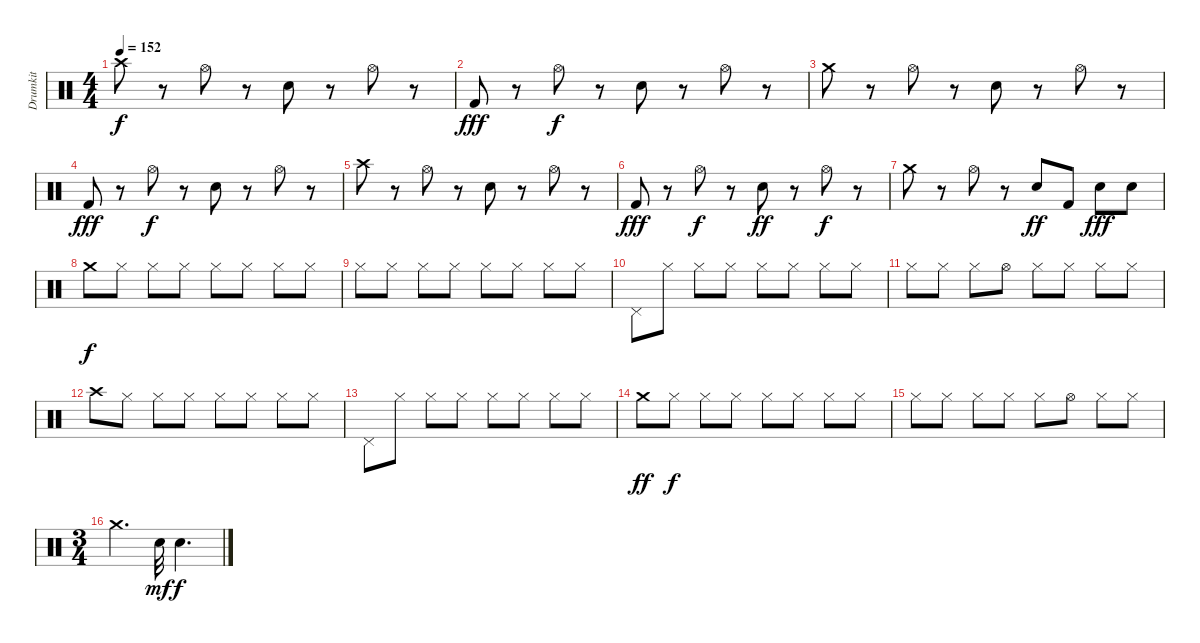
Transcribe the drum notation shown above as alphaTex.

\track ("Drumkit" "Drumkit") {instrument percussion}
\staff {score}
\articulation defaults
\ts (4 4)
\tempo 152
\clef neutral
\ks c "Crash high (hit)".8{dy f}
r.8 "Hi-Hat (open)".8 r.8 "Snare (hit) 2".8 r.8 "Hi-Hat (open)".8 r.8 |
"Kick (hit) 2".8{dy fff} r.8 "Hi-Hat (open)".8{dy f} r.8 "Snare (hit) 2".8 r.8 "Hi-Hat (open)".8 r.8 |
"Crash medium (hit)".8 r.8 "Hi-Hat (open)".8 r.8 "Snare (hit) 2".8 r.8 "Hi-Hat (open)".8 r.8 |
"Kick (hit) 2".8{dy fff} r.8 "Hi-Hat (open)".8{dy f} r.8 "Snare (hit) 2".8 r.8 "Hi-Hat (open)".8 r.8 |
"Crash high (hit)".8 r.8 "Hi-Hat (open)".8 r.8 "Snare (hit) 2".8 r.8 "Hi-Hat (open)".8 r.8 |
"Kick (hit) 2".8{dy fff} r.8 "Hi-Hat (open)".8{dy f} r.8 "Snare (hit) 2".8{dy ff} r.8 "Hi-Hat (open)".8{dy f} r.8 |
"Crash medium (hit)".8 r.8 "Hi-Hat (open)".8 r.8 "Snare (hit) 2".8{dy ff} "Kick (hit) 2".8 "Snare (hit) 2".8{dy fff} "Snare (hit) 2".8 |
"Crash medium (hit)".8{dy f} "Hi-Hat (closed)".8 "Hi-Hat (closed)".8 "Hi-Hat (closed)".8 "Hi-Hat (closed)".8 "Hi-Hat (closed)".8 "Hi-Hat (closed)".8 "Hi-Hat (closed)".8 |
"Hi-Hat (closed)".8 "Hi-Hat (closed)".8 "Hi-Hat (closed)".8 "Hi-Hat (closed)".8 "Hi-Hat (closed)".8 "Hi-Hat (closed)".8 "Hi-Hat (closed)".8 "Hi-Hat (closed)".8 |
"Pedal Hi-Hat (hit)".8 "Hi-Hat (closed)".8 "Hi-Hat (closed)".8 "Hi-Hat (closed)".8 "Hi-Hat (closed)".8 "Hi-Hat (closed)".8 "Hi-Hat (closed)".8 "Hi-Hat (closed)".8 |
"Hi-Hat (closed)".8 "Hi-Hat (closed)".8 "Hi-Hat (closed)".8 "Hi-Hat (open)".8 "Hi-Hat (closed)".8 "Hi-Hat (closed)".8 "Hi-Hat (closed)".8 "Hi-Hat (closed)".8 |
"Crash high (hit)".8 "Hi-Hat (closed)".8 "Hi-Hat (closed)".8 "Hi-Hat (closed)".8 "Hi-Hat (closed)".8 "Hi-Hat (closed)".8 "Hi-Hat (closed)".8 "Hi-Hat (closed)".8 |
"Pedal Hi-Hat (hit)".8 "Hi-Hat (closed)".8 "Hi-Hat (closed)".8 "Hi-Hat (closed)".8 "Hi-Hat (closed)".8 "Hi-Hat (closed)".8 "Hi-Hat (closed)".8 "Hi-Hat (closed)".8 |
"Crash medium (hit)".8{dy ff} "Hi-Hat (closed)".8{dy f} "Hi-Hat (closed)".8 "Hi-Hat (closed)".8 "Hi-Hat (closed)".8 "Hi-Hat (closed)".8 "Hi-Hat (closed)".8 "Hi-Hat (closed)".8 |
"Hi-Hat (closed)".8 "Hi-Hat (closed)".8 "Hi-Hat (closed)".8 "Hi-Hat (closed)".8 "Hi-Hat (closed)".8 "Hi-Hat (open)".8 "Hi-Hat (closed)".8 "Hi-Hat (closed)".8 |
\ts (3 4)
"Crash medium (hit)".4{d} "Snare (hit) 2".32{dy mf} "Snare (hit) 2".4{d dy f}
